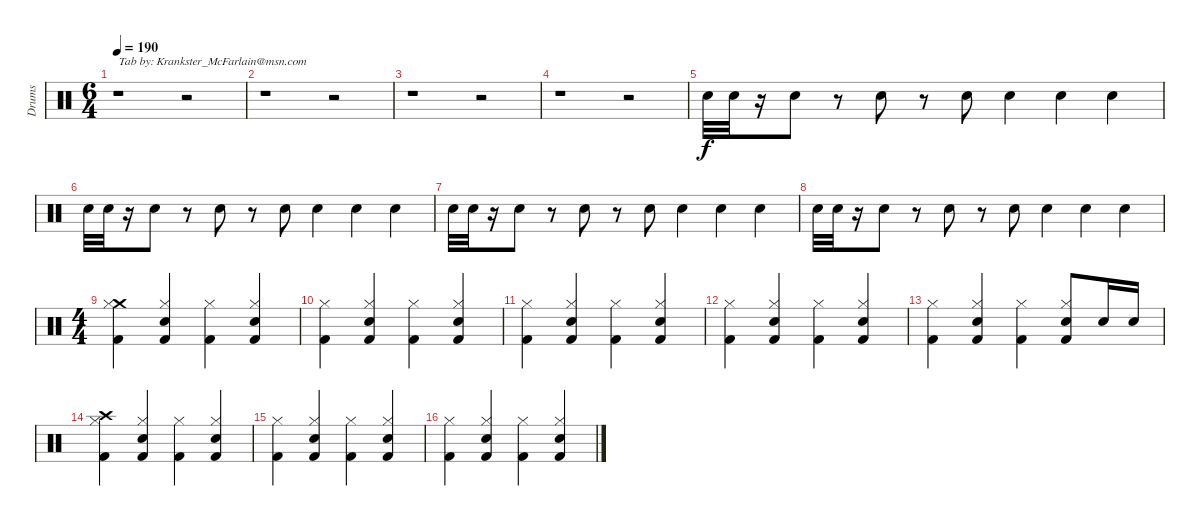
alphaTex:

\track ("Drums" "Drums") {instrument percussion}
\staff {score}
\articulation defaults
\ts (6 4)
\tempo 190
\clef neutral
\ks c
r.1{txt "Tab by: Krankster_McFarlain@msn.com" dy f} r.2 |
r.1 r.2 |
r.1 r.2 |
r.1 r.2 |
"Snare (hit) 2".32 "Snare (hit) 2".32 r.16 "Snare (hit) 2".8 r.8 "Snare (hit) 2".8 r.8 "Snare (hit) 2".8 "Snare (hit) 2".4 "Snare (hit) 2".4 "Snare (hit) 2".4 |
"Snare (hit) 2".32 "Snare (hit) 2".32 r.16 "Snare (hit) 2".8 r.8 "Snare (hit) 2".8 r.8 "Snare (hit) 2".8 "Snare (hit) 2".4 "Snare (hit) 2".4 "Snare (hit) 2".4 |
"Snare (hit) 2".32 "Snare (hit) 2".32 r.16 "Snare (hit) 2".8 r.8 "Snare (hit) 2".8 r.8 "Snare (hit) 2".8 "Snare (hit) 2".4 "Snare (hit) 2".4 "Snare (hit) 2".4 |
"Snare (hit) 2".32 "Snare (hit) 2".32 r.16 "Snare (hit) 2".8 r.8 "Snare (hit) 2".8 r.8 "Snare (hit) 2".8 "Snare (hit) 2".4 "Snare (hit) 2".4 "Snare (hit) 2".4 |
\ts (4 4)
("Crash medium (hit)" "Hi-Hat (closed)" "Kick (hit) 2").4 ("Hi-Hat (closed)" "Snare (hit) 2" "Kick (hit) 2").4 ("Hi-Hat (closed)" "Kick (hit) 2").4 ("Hi-Hat (closed)" "Snare (hit) 2" "Kick (hit) 2").4 |
("Hi-Hat (closed)" "Kick (hit) 2").4 ("Hi-Hat (closed)" "Snare (hit) 2" "Kick (hit) 2").4 ("Hi-Hat (closed)" "Kick (hit) 2").4 ("Hi-Hat (closed)" "Snare (hit) 2" "Kick (hit) 2").4 |
("Hi-Hat (closed)" "Kick (hit) 2").4 ("Hi-Hat (closed)" "Snare (hit) 2" "Kick (hit) 2").4 ("Hi-Hat (closed)" "Kick (hit) 2").4 ("Hi-Hat (closed)" "Snare (hit) 2" "Kick (hit) 2").4 |
("Hi-Hat (closed)" "Kick (hit) 2").4 ("Hi-Hat (closed)" "Snare (hit) 2" "Kick (hit) 2").4 ("Hi-Hat (closed)" "Kick (hit) 2").4 ("Hi-Hat (closed)" "Snare (hit) 2" "Kick (hit) 2").4 |
("Hi-Hat (closed)" "Kick (hit) 2").4 ("Hi-Hat (closed)" "Snare (hit) 2" "Kick (hit) 2").4 ("Hi-Hat (closed)" "Kick (hit) 2").4 ("Hi-Hat (closed)" "Snare (hit) 2" "Kick (hit) 2").8 "Snare (hit) 2".16 "Snare (hit) 2".16 |
("Crash high (hit)" "Hi-Hat (closed)" "Kick (hit) 2").4 ("Hi-Hat (closed)" "Snare (hit) 2" "Kick (hit) 2").4 ("Hi-Hat (closed)" "Kick (hit) 2").4 ("Hi-Hat (closed)" "Snare (hit) 2" "Kick (hit) 2").4 |
("Hi-Hat (closed)" "Kick (hit) 2").4 ("Hi-Hat (closed)" "Snare (hit) 2" "Kick (hit) 2").4 ("Hi-Hat (closed)" "Kick (hit) 2").4 ("Hi-Hat (closed)" "Snare (hit) 2" "Kick (hit) 2").4 |
("Hi-Hat (closed)" "Kick (hit) 2").4 ("Hi-Hat (closed)" "Snare (hit) 2" "Kick (hit) 2").4 ("Hi-Hat (closed)" "Kick (hit) 2").4 ("Hi-Hat (closed)" "Snare (hit) 2" "Kick (hit) 2").4
